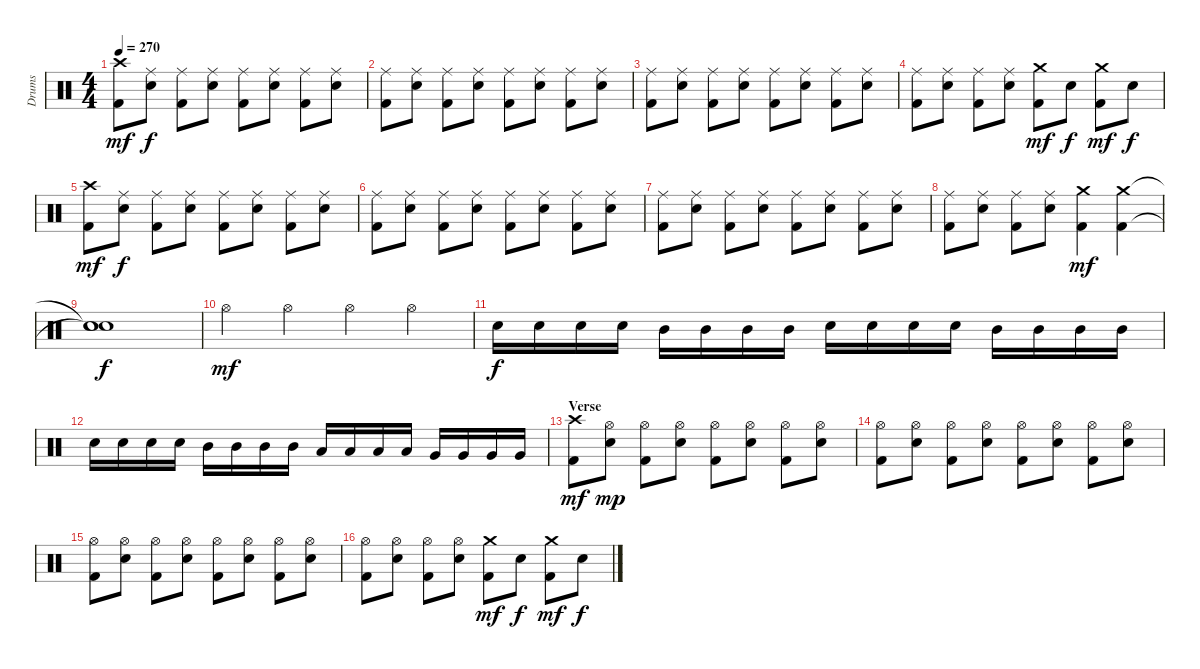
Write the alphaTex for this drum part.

\track ("Drums" "Drums") {instrument percussion}
\staff {score}
\articulation defaults
\ts (4 4)
\tempo 270
\clef neutral
\ks c
("Crash high (hit)" "Kick (hit) 2").8{dy mf} ("Ride (middle)" "Snare (hit) 2").8{dy f} ("Ride (middle)" "Kick (hit) 2").8 ("Ride (middle)" "Snare (hit) 2").8 ("Ride (middle)" "Kick (hit) 2").8 ("Ride (middle)" "Snare (hit) 2").8 ("Ride (middle)" "Kick (hit) 2").8 ("Ride (middle)" "Snare (hit) 2").8 |
("Ride (middle)" "Kick (hit) 2").8 ("Ride (middle)" "Snare (hit) 2").8 ("Ride (middle)" "Kick (hit) 2").8 ("Ride (middle)" "Snare (hit) 2").8 ("Ride (middle)" "Kick (hit) 2").8 ("Ride (middle)" "Snare (hit) 2").8 ("Ride (middle)" "Kick (hit) 2").8 ("Ride (middle)" "Snare (hit) 2").8 |
("Ride (middle)" "Kick (hit) 2").8 ("Ride (middle)" "Snare (hit) 2").8 ("Ride (middle)" "Kick (hit) 2").8 ("Ride (middle)" "Snare (hit) 2").8 ("Ride (middle)" "Kick (hit) 2").8 ("Ride (middle)" "Snare (hit) 2").8 ("Ride (middle)" "Kick (hit) 2").8 ("Ride (middle)" "Snare (hit) 2").8 |
("Ride (middle)" "Kick (hit) 2").8 ("Ride (middle)" "Snare (hit) 2").8 ("Ride (middle)" "Kick (hit) 2").8 ("Ride (middle)" "Snare (hit) 2").8 ("Crash medium (hit)" "Kick (hit) 2").8{dy mf} "Snare (hit) 2".8{dy f} ("Crash medium (hit)" "Kick (hit) 2").8{dy mf} "Snare (hit) 2".8{dy f} |
("Crash high (hit)" "Kick (hit) 2").8{dy mf} ("Ride (middle)" "Snare (hit) 2").8{dy f} ("Ride (middle)" "Kick (hit) 2").8 ("Ride (middle)" "Snare (hit) 2").8 ("Ride (middle)" "Kick (hit) 2").8 ("Ride (middle)" "Snare (hit) 2").8 ("Ride (middle)" "Kick (hit) 2").8 ("Ride (middle)" "Snare (hit) 2").8 |
("Ride (middle)" "Kick (hit) 2").8 ("Ride (middle)" "Snare (hit) 2").8 ("Ride (middle)" "Kick (hit) 2").8 ("Ride (middle)" "Snare (hit) 2").8 ("Ride (middle)" "Kick (hit) 2").8 ("Ride (middle)" "Snare (hit) 2").8 ("Ride (middle)" "Kick (hit) 2").8 ("Ride (middle)" "Snare (hit) 2").8 |
("Ride (middle)" "Kick (hit) 2").8 ("Ride (middle)" "Snare (hit) 2").8 ("Ride (middle)" "Kick (hit) 2").8 ("Ride (middle)" "Snare (hit) 2").8 ("Ride (middle)" "Kick (hit) 2").8 ("Ride (middle)" "Snare (hit) 2").8 ("Ride (middle)" "Kick (hit) 2").8 ("Ride (middle)" "Snare (hit) 2").8 |
("Ride (middle)" "Kick (hit) 2").8 ("Ride (middle)" "Snare (hit) 2").8 ("Ride (middle)" "Kick (hit) 2").8 ("Ride (middle)" "Snare (hit) 2").8 ("Crash medium (hit)" "Kick (hit) 2").4{dy mf} ("Crash medium (hit)" "Kick (hit) 2").4 |
("Snare (hit)"{t} "Snare (hit)"{t} "Snare (hit)").1{dy f} |
"Hi-Hat (open)".4{dy mf} "Hi-Hat (open)".4 "Hi-Hat (open)".4 "Hi-Hat (open)".4 |
"Snare (hit) 2".16{dy f} "Snare (hit) 2".16 "Snare (hit) 2".16 "Snare (hit) 2".16 "Mid Tom (hit)".16 "Mid Tom (hit)".16 "Mid Tom (hit)".16 "Mid Tom (hit)".16 "Snare (hit) 2".16 "Snare (hit) 2".16 "Snare (hit) 2".16 "Snare (hit) 2".16 "Mid Tom (hit)".16 "Mid Tom (hit)".16 "Mid Tom (hit)".16 "Mid Tom (hit)".16 |
"Snare (hit) 2".16 "Snare (hit) 2".16 "Snare (hit) 2".16 "Snare (hit) 2".16 "Mid Tom (hit)".16 "Mid Tom (hit)".16 "Mid Tom (hit)".16 "Mid Tom (hit)".16 "Low Tom (hit)".16 "Low Tom (hit)".16 "Low Tom (hit)".16 "Low Tom (hit)".16 "Very Low Tom (hit)".16 "Very Low Tom (hit)".16 "Very Low Tom (hit)".16 "Very Low Tom (hit)".16 |
\section ("" "Verse")
("Crash high (hit)" "Kick (hit) 2").8{dy mf} ("Hi-Hat (open)" "Snare (hit) 2").8{dy mp} ("Hi-Hat (open)" "Kick (hit) 2").8 ("Hi-Hat (open)" "Snare (hit) 2").8 ("Hi-Hat (open)" "Kick (hit) 2").8 ("Hi-Hat (open)" "Snare (hit) 2").8 ("Hi-Hat (open)" "Kick (hit) 2").8 ("Hi-Hat (open)" "Snare (hit) 2").8 |
("Hi-Hat (open)" "Kick (hit) 2").8 ("Hi-Hat (open)" "Snare (hit) 2").8 ("Hi-Hat (open)" "Kick (hit) 2").8 ("Hi-Hat (open)" "Snare (hit) 2").8 ("Hi-Hat (open)" "Kick (hit) 2").8 ("Hi-Hat (open)" "Snare (hit) 2").8 ("Hi-Hat (open)" "Kick (hit) 2").8 ("Hi-Hat (open)" "Snare (hit) 2").8 |
("Hi-Hat (open)" "Kick (hit) 2").8 ("Hi-Hat (open)" "Snare (hit) 2").8 ("Hi-Hat (open)" "Kick (hit) 2").8 ("Hi-Hat (open)" "Snare (hit) 2").8 ("Hi-Hat (open)" "Kick (hit) 2").8 ("Hi-Hat (open)" "Snare (hit) 2").8 ("Hi-Hat (open)" "Kick (hit) 2").8 ("Hi-Hat (open)" "Snare (hit) 2").8 |
("Hi-Hat (open)" "Kick (hit) 2").8 ("Hi-Hat (open)" "Snare (hit) 2").8 ("Hi-Hat (open)" "Kick (hit) 2").8 ("Hi-Hat (open)" "Snare (hit) 2").8 ("Crash medium (hit)" "Kick (hit) 2").8{dy mf} "Snare (hit) 2".8{dy f} ("Crash medium (hit)" "Kick (hit) 2").8{dy mf} "Snare (hit) 2".8{dy f}
